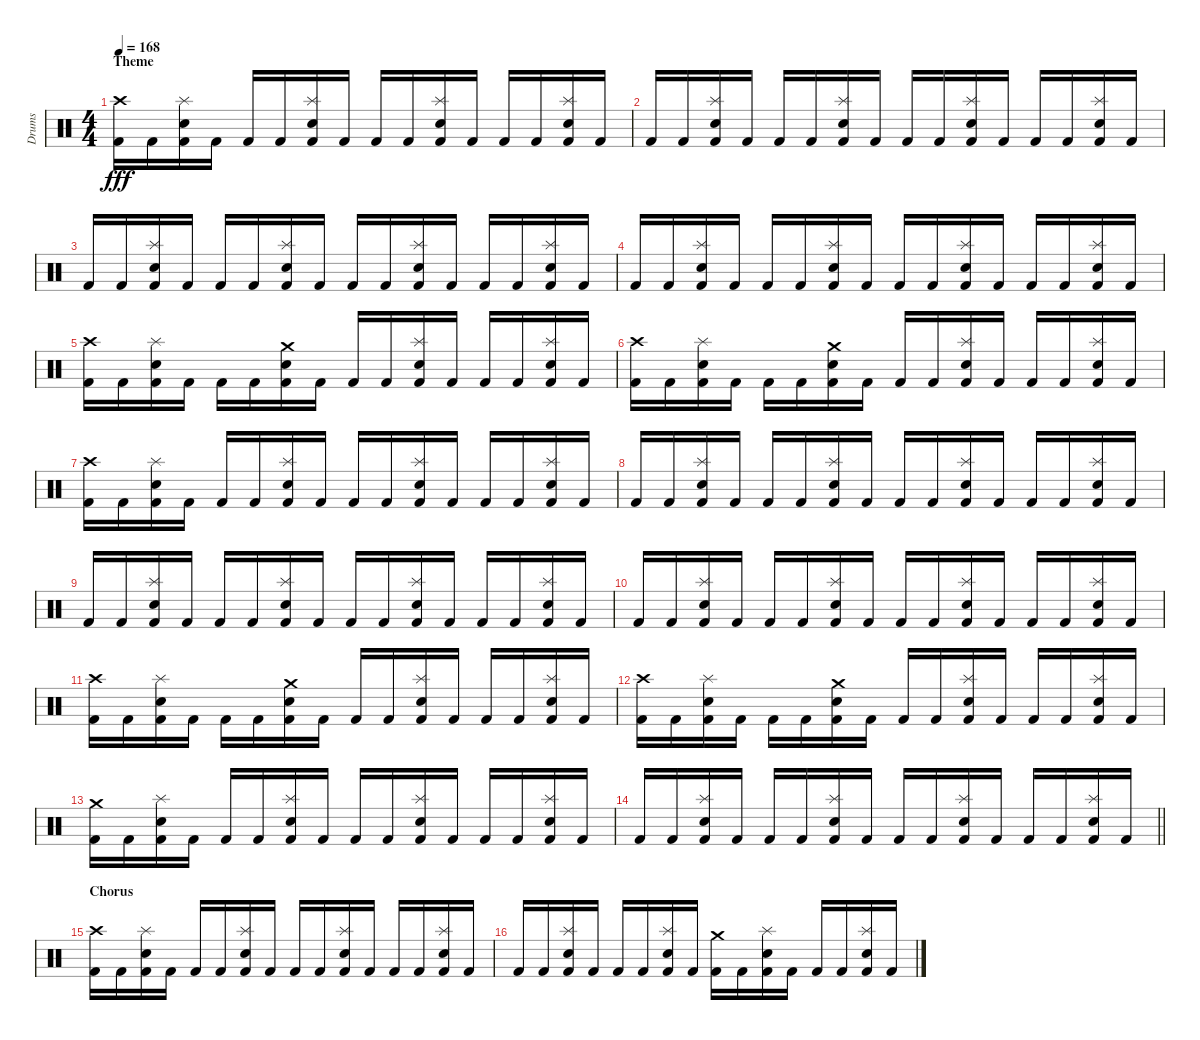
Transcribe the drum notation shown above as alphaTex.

\track ("Drums" "Drums") {instrument percussion}
\staff {score}
\articulation defaults
\ts (4 4)
\section ("" "Theme")
\tempo 168
\clef neutral
\ks aminor
("Crash high (hit)" "Kick (hit) 2").16{dy fff} "Kick (hit) 2".16 ("Splash (hit)" "Snare (hit) 2" "Kick (hit) 2").16 "Kick (hit) 2".16 "Kick (hit) 2".16 "Kick (hit) 2".16 ("Splash (hit)" "Snare (hit) 2" "Kick (hit) 2").16 "Kick (hit) 2".16 "Kick (hit) 2".16 "Kick (hit) 2".16 ("Splash (hit)" "Snare (hit) 2" "Kick (hit) 2").16 "Kick (hit) 2".16 "Kick (hit) 2".16 "Kick (hit) 2".16 ("Splash (hit)" "Snare (hit) 2" "Kick (hit) 2").16 "Kick (hit) 2".16 |
"Kick (hit) 2".16 "Kick (hit) 2".16 ("Splash (hit)" "Snare (hit) 2" "Kick (hit) 2").16 "Kick (hit) 2".16 "Kick (hit) 2".16 "Kick (hit) 2".16 ("Splash (hit)" "Snare (hit) 2" "Kick (hit) 2").16 "Kick (hit) 2".16 "Kick (hit) 2".16 "Kick (hit) 2".16 ("Splash (hit)" "Snare (hit) 2" "Kick (hit) 2").16 "Kick (hit) 2".16 "Kick (hit) 2".16 "Kick (hit) 2".16 ("Splash (hit)" "Snare (hit) 2" "Kick (hit) 2").16 "Kick (hit) 2".16 |
"Kick (hit) 2".16 "Kick (hit) 2".16 ("Splash (hit)" "Snare (hit) 2" "Kick (hit) 2").16 "Kick (hit) 2".16 "Kick (hit) 2".16 "Kick (hit) 2".16 ("Splash (hit)" "Snare (hit) 2" "Kick (hit) 2").16 "Kick (hit) 2".16 "Kick (hit) 2".16 "Kick (hit) 2".16 ("Splash (hit)" "Snare (hit) 2" "Kick (hit) 2").16 "Kick (hit) 2".16 "Kick (hit) 2".16 "Kick (hit) 2".16 ("Splash (hit)" "Snare (hit) 2" "Kick (hit) 2").16 "Kick (hit) 2".16 |
"Kick (hit) 2".16 "Kick (hit) 2".16 ("Splash (hit)" "Snare (hit) 2" "Kick (hit) 2").16 "Kick (hit) 2".16 "Kick (hit) 2".16 "Kick (hit) 2".16 ("Splash (hit)" "Snare (hit) 2" "Kick (hit) 2").16 "Kick (hit) 2".16 "Kick (hit) 2".16 "Kick (hit) 2".16 ("Splash (hit)" "Snare (hit) 2" "Kick (hit) 2").16 "Kick (hit) 2".16 "Kick (hit) 2".16 "Kick (hit) 2".16 ("Splash (hit)" "Snare (hit) 2" "Kick (hit) 2").16 "Kick (hit) 2".16 |
("Crash high (hit)" "Kick (hit) 2").16 "Kick (hit) 2".16 ("Splash (hit)" "Snare (hit) 2" "Kick (hit) 2").16 "Kick (hit) 2".16 "Kick (hit) 2".16 "Kick (hit) 2".16 ("Crash medium (hit)" "Snare (hit) 2" "Kick (hit) 2").16 "Kick (hit) 2".16 "Kick (hit) 2".16 "Kick (hit) 2".16 ("Splash (hit)" "Snare (hit) 2" "Kick (hit) 2").16 "Kick (hit) 2".16 "Kick (hit) 2".16 "Kick (hit) 2".16 ("Splash (hit)" "Snare (hit) 2" "Kick (hit) 2").16 "Kick (hit) 2".16 |
("Crash high (hit)" "Kick (hit) 2").16 "Kick (hit) 2".16 ("Splash (hit)" "Snare (hit) 2" "Kick (hit) 2").16 "Kick (hit) 2".16 "Kick (hit) 2".16 "Kick (hit) 2".16 ("Crash medium (hit)" "Snare (hit) 2" "Kick (hit) 2").16 "Kick (hit) 2".16 "Kick (hit) 2".16 "Kick (hit) 2".16 ("Splash (hit)" "Snare (hit) 2" "Kick (hit) 2").16 "Kick (hit) 2".16 "Kick (hit) 2".16 "Kick (hit) 2".16 ("Splash (hit)" "Snare (hit) 2" "Kick (hit) 2").16 "Kick (hit) 2".16 |
("Crash high (hit)" "Kick (hit) 2").16 "Kick (hit) 2".16 ("Splash (hit)" "Snare (hit) 2" "Kick (hit) 2").16 "Kick (hit) 2".16 "Kick (hit) 2".16 "Kick (hit) 2".16 ("Splash (hit)" "Snare (hit) 2" "Kick (hit) 2").16 "Kick (hit) 2".16 "Kick (hit) 2".16 "Kick (hit) 2".16 ("Splash (hit)" "Snare (hit) 2" "Kick (hit) 2").16 "Kick (hit) 2".16 "Kick (hit) 2".16 "Kick (hit) 2".16 ("Splash (hit)" "Snare (hit) 2" "Kick (hit) 2").16 "Kick (hit) 2".16 |
"Kick (hit) 2".16 "Kick (hit) 2".16 ("Splash (hit)" "Snare (hit) 2" "Kick (hit) 2").16 "Kick (hit) 2".16 "Kick (hit) 2".16 "Kick (hit) 2".16 ("Splash (hit)" "Snare (hit) 2" "Kick (hit) 2").16 "Kick (hit) 2".16 "Kick (hit) 2".16 "Kick (hit) 2".16 ("Splash (hit)" "Snare (hit) 2" "Kick (hit) 2").16 "Kick (hit) 2".16 "Kick (hit) 2".16 "Kick (hit) 2".16 ("Splash (hit)" "Snare (hit) 2" "Kick (hit) 2").16 "Kick (hit) 2".16 |
"Kick (hit) 2".16 "Kick (hit) 2".16 ("Splash (hit)" "Snare (hit) 2" "Kick (hit) 2").16 "Kick (hit) 2".16 "Kick (hit) 2".16 "Kick (hit) 2".16 ("Splash (hit)" "Snare (hit) 2" "Kick (hit) 2").16 "Kick (hit) 2".16 "Kick (hit) 2".16 "Kick (hit) 2".16 ("Splash (hit)" "Snare (hit) 2" "Kick (hit) 2").16 "Kick (hit) 2".16 "Kick (hit) 2".16 "Kick (hit) 2".16 ("Splash (hit)" "Snare (hit) 2" "Kick (hit) 2").16 "Kick (hit) 2".16 |
"Kick (hit) 2".16 "Kick (hit) 2".16 ("Splash (hit)" "Snare (hit) 2" "Kick (hit) 2").16 "Kick (hit) 2".16 "Kick (hit) 2".16 "Kick (hit) 2".16 ("Splash (hit)" "Snare (hit) 2" "Kick (hit) 2").16 "Kick (hit) 2".16 "Kick (hit) 2".16 "Kick (hit) 2".16 ("Splash (hit)" "Snare (hit) 2" "Kick (hit) 2").16 "Kick (hit) 2".16 "Kick (hit) 2".16 "Kick (hit) 2".16 ("Splash (hit)" "Snare (hit) 2" "Kick (hit) 2").16 "Kick (hit) 2".16 |
("Crash high (hit)" "Kick (hit) 2").16 "Kick (hit) 2".16 ("Splash (hit)" "Snare (hit) 2" "Kick (hit) 2").16 "Kick (hit) 2".16 "Kick (hit) 2".16 "Kick (hit) 2".16 ("Crash medium (hit)" "Snare (hit) 2" "Kick (hit) 2").16 "Kick (hit) 2".16 "Kick (hit) 2".16 "Kick (hit) 2".16 ("Splash (hit)" "Snare (hit) 2" "Kick (hit) 2").16 "Kick (hit) 2".16 "Kick (hit) 2".16 "Kick (hit) 2".16 ("Splash (hit)" "Snare (hit) 2" "Kick (hit) 2").16 "Kick (hit) 2".16 |
("Crash high (hit)" "Kick (hit) 2").16 "Kick (hit) 2".16 ("Splash (hit)" "Snare (hit) 2" "Kick (hit) 2").16 "Kick (hit) 2".16 "Kick (hit) 2".16 "Kick (hit) 2".16 ("Crash medium (hit)" "Snare (hit) 2" "Kick (hit) 2").16 "Kick (hit) 2".16 "Kick (hit) 2".16 "Kick (hit) 2".16 ("Splash (hit)" "Snare (hit) 2" "Kick (hit) 2").16 "Kick (hit) 2".16 "Kick (hit) 2".16 "Kick (hit) 2".16 ("Splash (hit)" "Snare (hit) 2" "Kick (hit) 2").16 "Kick (hit) 2".16 |
("Crash medium (hit)" "Kick (hit) 2").16 "Kick (hit) 2".16 ("Splash (hit)" "Snare (hit) 2" "Kick (hit) 2").16 "Kick (hit) 2".16 "Kick (hit) 2".16 "Kick (hit) 2".16 ("Splash (hit)" "Snare (hit) 2" "Kick (hit) 2").16 "Kick (hit) 2".16 "Kick (hit) 2".16 "Kick (hit) 2".16 ("Splash (hit)" "Snare (hit) 2" "Kick (hit) 2").16 "Kick (hit) 2".16 "Kick (hit) 2".16 "Kick (hit) 2".16 ("Splash (hit)" "Snare (hit) 2" "Kick (hit) 2").16 "Kick (hit) 2".16 |
\barLineRight lightlight "Kick (hit) 2".16 "Kick (hit) 2".16
("Splash (hit)" "Snare (hit) 2" "Kick (hit) 2").16 "Kick (hit) 2".16 "Kick (hit) 2".16 "Kick (hit) 2".16 ("Splash (hit)" "Snare (hit) 2" "Kick (hit) 2").16 "Kick (hit) 2".16 "Kick (hit) 2".16 "Kick (hit) 2".16 ("Splash (hit)" "Snare (hit) 2" "Kick (hit) 2").16 "Kick (hit) 2".16 "Kick (hit) 2".16 "Kick (hit) 2".16 ("Splash (hit)" "Snare (hit) 2" "Kick (hit) 2").16 "Kick (hit) 2".16 |
\section ("" "Chorus")
("Crash high (hit)" "Kick (hit) 2").16 "Kick (hit) 2".16 ("Splash (hit)" "Snare (hit) 2" "Kick (hit) 2").16 "Kick (hit) 2".16 "Kick (hit) 2".16 "Kick (hit) 2".16 ("Splash (hit)" "Snare (hit) 2" "Kick (hit) 2").16 "Kick (hit) 2".16 "Kick (hit) 2".16 "Kick (hit) 2".16 ("Splash (hit)" "Snare (hit) 2" "Kick (hit) 2").16 "Kick (hit) 2".16 "Kick (hit) 2".16 "Kick (hit) 2".16 ("Splash (hit)" "Snare (hit) 2" "Kick (hit) 2").16 "Kick (hit) 2".16 |
"Kick (hit) 2".16 "Kick (hit) 2".16 ("Splash (hit)" "Snare (hit) 2" "Kick (hit) 2").16 "Kick (hit) 2".16 "Kick (hit) 2".16 "Kick (hit) 2".16 ("Splash (hit)" "Snare (hit) 2" "Kick (hit) 2").16 "Kick (hit) 2".16 ("Crash medium (hit)" "Kick (hit) 2").16 "Kick (hit) 2".16 ("Splash (hit)" "Snare (hit) 2" "Kick (hit) 2").16 "Kick (hit) 2".16 "Kick (hit) 2".16 "Kick (hit) 2".16 ("Splash (hit)" "Snare (hit) 2" "Kick (hit) 2").16 "Kick (hit) 2".16
